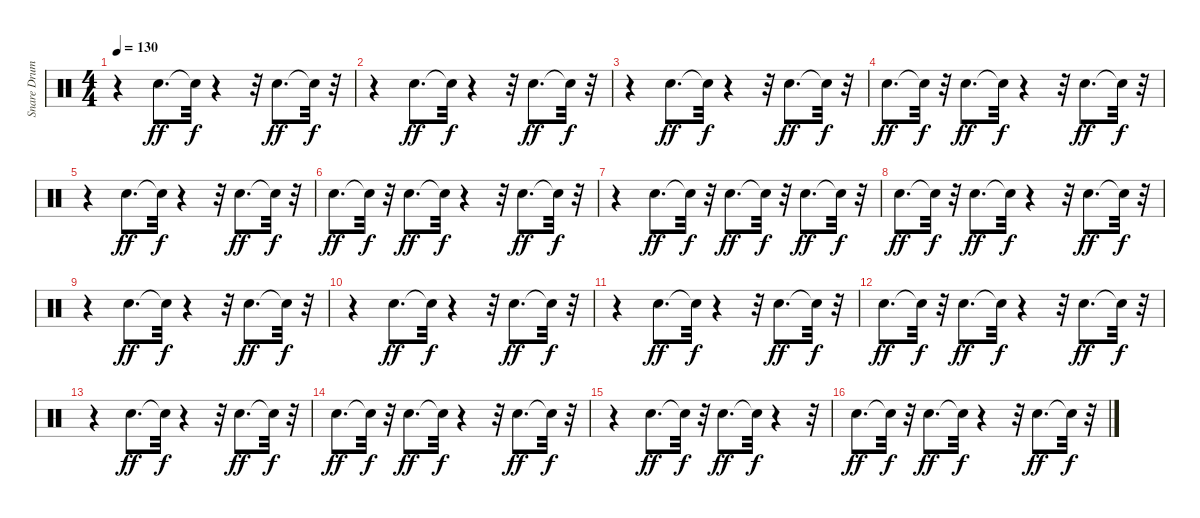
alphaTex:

\track ("Snare Drum" "Snare Drum") {instrument percussion}
\staff {score}
\articulation defaults
\ts (4 4)
\tempo 130
\clef neutral
\ks c
r.4{dy f} "Snare (hit) 2".8{d dy ff} "Snare (hit)"{t}.32{dy f} r.4 r.32 "Snare (hit) 2".8{d dy ff} "Snare (hit)"{t}.32{dy f} r.32 |
r.4 "Snare (hit) 2".8{d dy ff} "Snare (hit)"{t}.32{dy f} r.4 r.32 "Snare (hit) 2".8{d dy ff} "Snare (hit)"{t}.32{dy f} r.32 |
r.4 "Snare (hit) 2".8{d dy ff} "Snare (hit)"{t}.32{dy f} r.4 r.32 "Snare (hit) 2".8{d dy ff} "Snare (hit)"{t}.32{dy f} r.32 |
"Snare (hit) 2".8{d dy ff} "Snare (hit)"{t}.32{dy f} r.32 "Snare (hit) 2".8{d dy ff} "Snare (hit)"{t}.32{dy f} r.4 r.32 "Snare (hit) 2".8{d dy ff} "Snare (hit)"{t}.32{dy f} r.32 |
r.4 "Snare (hit) 2".8{d dy ff} "Snare (hit)"{t}.32{dy f} r.4 r.32 "Snare (hit) 2".8{d dy ff} "Snare (hit)"{t}.32{dy f} r.32 |
"Snare (hit) 2".8{d dy ff} "Snare (hit)"{t}.32{dy f} r.32 "Snare (hit) 2".8{d dy ff} "Snare (hit)"{t}.32{dy f} r.4 r.32 "Snare (hit) 2".8{d dy ff} "Snare (hit)"{t}.32{dy f} r.32 |
r.4 "Snare (hit) 2".8{d dy ff} "Snare (hit)"{t}.32{dy f} r.32 "Snare (hit) 2".8{d dy ff} "Snare (hit)"{t}.32{dy f} r.32 "Snare (hit) 2".8{d dy ff} "Snare (hit)"{t}.32{dy f} r.32 |
"Snare (hit) 2".8{d dy ff} "Snare (hit)"{t}.32{dy f} r.32 "Snare (hit) 2".8{d dy ff} "Snare (hit)"{t}.32{dy f} r.4 r.32 "Snare (hit) 2".8{d dy ff} "Snare (hit)"{t}.32{dy f} r.32 |
r.4 "Snare (hit) 2".8{d dy ff} "Snare (hit)"{t}.32{dy f} r.4 r.32 "Snare (hit) 2".8{d dy ff} "Snare (hit)"{t}.32{dy f} r.32 |
r.4 "Snare (hit) 2".8{d dy ff} "Snare (hit)"{t}.32{dy f} r.4 r.32 "Snare (hit) 2".8{d dy ff} "Snare (hit)"{t}.32{dy f} r.32 |
r.4 "Snare (hit) 2".8{d dy ff} "Snare (hit)"{t}.32{dy f} r.4 r.32 "Snare (hit) 2".8{d dy ff} "Snare (hit)"{t}.32{dy f} r.32 |
"Snare (hit) 2".8{d dy ff} "Snare (hit)"{t}.32{dy f} r.32 "Snare (hit) 2".8{d dy ff} "Snare (hit)"{t}.32{dy f} r.4 r.32 "Snare (hit) 2".8{d dy ff} "Snare (hit)"{t}.32{dy f} r.32 |
r.4 "Snare (hit) 2".8{d dy ff} "Snare (hit)"{t}.32{dy f} r.4 r.32 "Snare (hit) 2".8{d dy ff} "Snare (hit)"{t}.32{dy f} r.32 |
"Snare (hit) 2".8{d dy ff} "Snare (hit)"{t}.32{dy f} r.32 "Snare (hit) 2".8{d dy ff} "Snare (hit)"{t}.32{dy f} r.4 r.32 "Snare (hit) 2".8{d dy ff} "Snare (hit)"{t}.32{dy f} r.32 |
r.4 "Snare (hit) 2".8{d dy ff} "Snare (hit)"{t}.32{dy f} r.32 "Snare (hit) 2".8{d dy ff} "Snare (hit)"{t}.32{dy f} r.4 r.32 |
"Snare (hit) 2".8{d dy ff} "Snare (hit)"{t}.32{dy f} r.32 "Snare (hit) 2".8{d dy ff} "Snare (hit)"{t}.32{dy f} r.4 r.32 "Snare (hit) 2".8{d dy ff} "Snare (hit)"{t}.32{dy f} r.32
